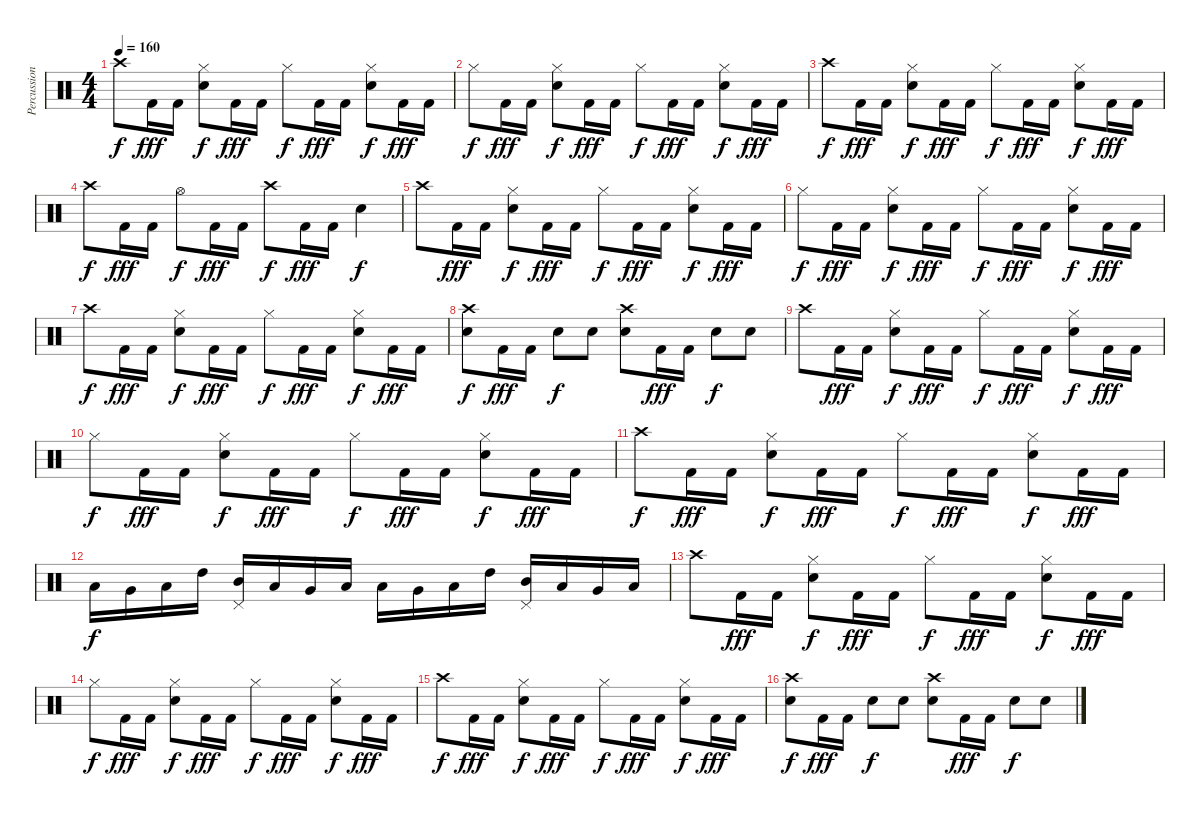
\track ("Percussion" "Percussion") {instrument percussion}
\staff {score}
\articulation defaults
\ts (4 4)
\tempo 160
\clef neutral
\ks c "Crash high (hit)".8{dy f} "Kick (hit) 2".16{dy fff} "Kick (hit) 2".16
("Hi-Hat (closed)" "Electric Snare (hit)").8{dy f} "Kick (hit) 2".16{dy fff} "Kick (hit) 2".16 "Hi-Hat (closed)".8{dy f} "Kick (hit) 2".16{dy fff} "Kick (hit) 2".16 ("Hi-Hat (closed)" "Electric Snare (hit)").8{dy f} "Kick (hit) 2".16{dy fff} "Kick (hit) 2".16 |
"Hi-Hat (closed)".8{dy f} "Kick (hit) 2".16{dy fff} "Kick (hit) 2".16 ("Hi-Hat (closed)" "Electric Snare (hit)").8{dy f} "Kick (hit) 2".16{dy fff} "Kick (hit) 2".16 "Hi-Hat (closed)".8{dy f} "Kick (hit) 2".16{dy fff} "Kick (hit) 2".16 ("Hi-Hat (closed)" "Electric Snare (hit)").8{dy f} "Kick (hit) 2".16{dy fff} "Kick (hit) 2".16 |
"Crash high (hit)".8{dy f} "Kick (hit) 2".16{dy fff} "Kick (hit) 2".16 ("Hi-Hat (closed)" "Electric Snare (hit)").8{dy f} "Kick (hit) 2".16{dy fff} "Kick (hit) 2".16 "Hi-Hat (closed)".8{dy f} "Kick (hit) 2".16{dy fff} "Kick (hit) 2".16 ("Hi-Hat (closed)" "Electric Snare (hit)").8{dy f} "Kick (hit) 2".16{dy fff} "Kick (hit) 2".16 |
"Crash high (hit)".8{dy f} "Kick (hit) 2".16{dy fff} "Kick (hit) 2".16 "Hi-Hat (open)".8{dy f} "Kick (hit) 2".16{dy fff} "Kick (hit) 2".16 "Crash high (hit)".8{dy f} "Kick (hit) 2".16{dy fff} "Kick (hit) 2".16 "Electric Snare (hit)".4{dy f} |
"Crash high (hit)".8 "Kick (hit) 2".16{dy fff} "Kick (hit) 2".16 ("Hi-Hat (closed)" "Electric Snare (hit)").8{dy f} "Kick (hit) 2".16{dy fff} "Kick (hit) 2".16 "Hi-Hat (closed)".8{dy f} "Kick (hit) 2".16{dy fff} "Kick (hit) 2".16 ("Hi-Hat (closed)" "Electric Snare (hit)").8{dy f} "Kick (hit) 2".16{dy fff} "Kick (hit) 2".16 |
"Hi-Hat (closed)".8{dy f} "Kick (hit) 2".16{dy fff} "Kick (hit) 2".16 ("Hi-Hat (closed)" "Electric Snare (hit)").8{dy f} "Kick (hit) 2".16{dy fff} "Kick (hit) 2".16 "Hi-Hat (closed)".8{dy f} "Kick (hit) 2".16{dy fff} "Kick (hit) 2".16 ("Hi-Hat (closed)" "Electric Snare (hit)").8{dy f} "Kick (hit) 2".16{dy fff} "Kick (hit) 2".16 |
"Crash high (hit)".8{dy f} "Kick (hit) 2".16{dy fff} "Kick (hit) 2".16 ("Hi-Hat (closed)" "Electric Snare (hit)").8{dy f} "Kick (hit) 2".16{dy fff} "Kick (hit) 2".16 "Hi-Hat (closed)".8{dy f} "Kick (hit) 2".16{dy fff} "Kick (hit) 2".16 ("Hi-Hat (closed)" "Electric Snare (hit)").8{dy f} "Kick (hit) 2".16{dy fff} "Kick (hit) 2".16 |
("Crash high (hit)" "Electric Snare (hit)").8{dy f} "Kick (hit) 2".16{dy fff} "Kick (hit) 2".16 "Electric Snare (hit)".8{dy f} "Electric Snare (hit)".8 ("Crash high (hit)" "Electric Snare (hit)").8 "Kick (hit) 2".16{dy fff} "Kick (hit) 2".16 "Electric Snare (hit)".8{dy f} "Electric Snare (hit)".8 |
"Crash high (hit)".8 "Kick (hit) 2".16{dy fff} "Kick (hit) 2".16 ("Hi-Hat (closed)" "Electric Snare (hit)").8{dy f} "Kick (hit) 2".16{dy fff} "Kick (hit) 2".16 "Hi-Hat (closed)".8{dy f} "Kick (hit) 2".16{dy fff} "Kick (hit) 2".16 ("Hi-Hat (closed)" "Electric Snare (hit)").8{dy f} "Kick (hit) 2".16{dy fff} "Kick (hit) 2".16 |
"Hi-Hat (closed)".8{dy f} "Kick (hit) 2".16{dy fff} "Kick (hit) 2".16 ("Hi-Hat (closed)" "Electric Snare (hit)").8{dy f} "Kick (hit) 2".16{dy fff} "Kick (hit) 2".16 "Hi-Hat (closed)".8{dy f} "Kick (hit) 2".16{dy fff} "Kick (hit) 2".16 ("Hi-Hat (closed)" "Electric Snare (hit)").8{dy f} "Kick (hit) 2".16{dy fff} "Kick (hit) 2".16 |
"Crash high (hit)".8{dy f} "Kick (hit) 2".16{dy fff} "Kick (hit) 2".16 ("Hi-Hat (closed)" "Electric Snare (hit)").8{dy f} "Kick (hit) 2".16{dy fff} "Kick (hit) 2".16 "Hi-Hat (closed)".8{dy f} "Kick (hit) 2".16{dy fff} "Kick (hit) 2".16 ("Hi-Hat (closed)" "Electric Snare (hit)").8{dy f} "Kick (hit) 2".16{dy fff} "Kick (hit) 2".16 |
"Low Tom (hit)".16{dy f} "Very Low Tom (hit)".16 "Low Floor Tom (hit)".16 "High Tom (hit)".16 ("Pedal Hi-Hat (hit)" "Mid Tom (hit)").16 "Low Tom (hit)".16 "Very Low Tom (hit)".16 "Low Floor Tom (hit)".16 "Low Tom (hit)".16 "Very Low Tom (hit)".16 "Low Floor Tom (hit)".16 "High Tom (hit)".16 ("Pedal Hi-Hat (hit)" "Mid Tom (hit)").16 "Low Tom (hit)".16 "Very Low Tom (hit)".16 "Low Floor Tom (hit)".16 |
"Crash high (hit)".8 "Kick (hit) 2".16{dy fff} "Kick (hit) 2".16 ("Hi-Hat (closed)" "Electric Snare (hit)").8{dy f} "Kick (hit) 2".16{dy fff} "Kick (hit) 2".16 "Hi-Hat (closed)".8{dy f} "Kick (hit) 2".16{dy fff} "Kick (hit) 2".16 ("Hi-Hat (closed)" "Electric Snare (hit)").8{dy f} "Kick (hit) 2".16{dy fff} "Kick (hit) 2".16 |
"Hi-Hat (closed)".8{dy f} "Kick (hit) 2".16{dy fff} "Kick (hit) 2".16 ("Hi-Hat (closed)" "Electric Snare (hit)").8{dy f} "Kick (hit) 2".16{dy fff} "Kick (hit) 2".16 "Hi-Hat (closed)".8{dy f} "Kick (hit) 2".16{dy fff} "Kick (hit) 2".16 ("Hi-Hat (closed)" "Electric Snare (hit)").8{dy f} "Kick (hit) 2".16{dy fff} "Kick (hit) 2".16 |
"Crash high (hit)".8{dy f} "Kick (hit) 2".16{dy fff} "Kick (hit) 2".16 ("Hi-Hat (closed)" "Electric Snare (hit)").8{dy f} "Kick (hit) 2".16{dy fff} "Kick (hit) 2".16 "Hi-Hat (closed)".8{dy f} "Kick (hit) 2".16{dy fff} "Kick (hit) 2".16 ("Hi-Hat (closed)" "Electric Snare (hit)").8{dy f} "Kick (hit) 2".16{dy fff} "Kick (hit) 2".16 |
("Crash high (hit)" "Electric Snare (hit)").8{dy f} "Kick (hit) 2".16{dy fff} "Kick (hit) 2".16 "Electric Snare (hit)".8{dy f} "Electric Snare (hit)".8 ("Crash high (hit)" "Electric Snare (hit)").8 "Kick (hit) 2".16{dy fff} "Kick (hit) 2".16 "Electric Snare (hit)".8{dy f} "Electric Snare (hit)".8
